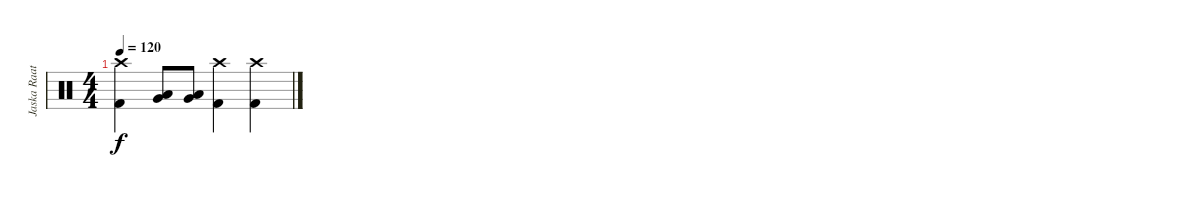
\track ("Jaska Raatikainen" "Jaska Raat") {instrument percussion}
\staff {score}
\articulation defaults
\ts (4 4)
\tempo 120
\clef neutral
\ks c
("Crash high (hit)" "Kick (hit) 2").4{dy f} ("Low Tom (hit)" "Very Low Tom (hit)").8 ("Low Tom (hit)" "Very Low Tom (hit)").8 ("Crash high (hit)" "Kick (hit) 2").4 ("Crash high (hit)" "Kick (hit) 2").4
